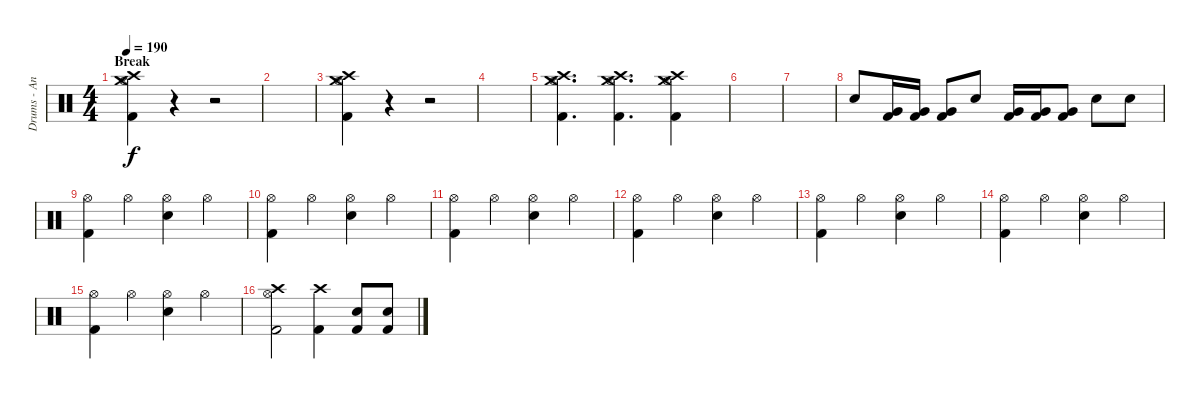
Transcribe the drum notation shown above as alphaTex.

\track ("Drums - Anders Johansson" "Drums - An") {instrument percussion}
\staff {score}
\articulation defaults
\ts (4 4)
\section ("" "Break")
\tempo 190
\clef neutral
\ks c
("Hi-Hat (open)" "Kick (hit) 2" "Crash medium (hit)" "Crash high (hit)").4{dy f} r.4 r.2 |
|
("Hi-Hat (open)" "Kick (hit) 2" "Crash medium (hit)" "Crash high (hit)").4 r.4 r.2 |
|
("Hi-Hat (open)" "Kick (hit) 2" "Crash medium (hit)" "Crash high (hit)").4{d} ("Hi-Hat (open)" "Kick (hit) 2" "Crash medium (hit)" "Crash high (hit)").4{d} ("Hi-Hat (open)" "Kick (hit) 2" "Crash medium (hit)" "Crash high (hit)").4 |
|
|
"Snare (hit) 2".8 ("Very Low Tom (hit)" "Kick (hit) 2").16 ("Very Low Tom (hit)" "Kick (hit) 2").16 ("Very Low Tom (hit)" "Kick (hit) 2").8 "Snare (hit) 2".8 ("Very Low Tom (hit)" "Kick (hit) 2").16 ("Very Low Tom (hit)" "Kick (hit) 2").16 ("Very Low Tom (hit)" "Kick (hit) 2").8 "Snare (hit) 2".8 "Snare (hit) 2".8 |
("Hi-Hat (open)" "Kick (hit) 2").4 "Hi-Hat (open)".4 ("Hi-Hat (open)" "Snare (hit) 2").4 "Hi-Hat (open)".4 |
("Hi-Hat (open)" "Kick (hit) 2").4 "Hi-Hat (open)".4 ("Hi-Hat (open)" "Snare (hit) 2").4 "Hi-Hat (open)".4 |
("Hi-Hat (open)" "Kick (hit) 2").4 "Hi-Hat (open)".4 ("Hi-Hat (open)" "Snare (hit) 2").4 "Hi-Hat (open)".4 |
("Hi-Hat (open)" "Kick (hit) 2").4 "Hi-Hat (open)".4 ("Hi-Hat (open)" "Snare (hit) 2").4 "Hi-Hat (open)".4 |
("Hi-Hat (open)" "Kick (hit) 2").4 "Hi-Hat (open)".4 ("Hi-Hat (open)" "Snare (hit) 2").4 "Hi-Hat (open)".4 |
("Hi-Hat (open)" "Kick (hit) 2").4 "Hi-Hat (open)".4 ("Hi-Hat (open)" "Snare (hit) 2").4 "Hi-Hat (open)".4 |
("Hi-Hat (open)" "Kick (hit) 2").4 "Hi-Hat (open)".4 ("Hi-Hat (open)" "Snare (hit) 2").4 "Hi-Hat (open)".4 |
("Hi-Hat (open)" "Kick (hit) 2" "Crash high (hit)").2 ("Kick (hit) 2" "Crash high (hit)").4 ("Snare (hit) 2" "Kick (hit) 2").8 ("Snare (hit) 2" "Kick (hit) 2").8
